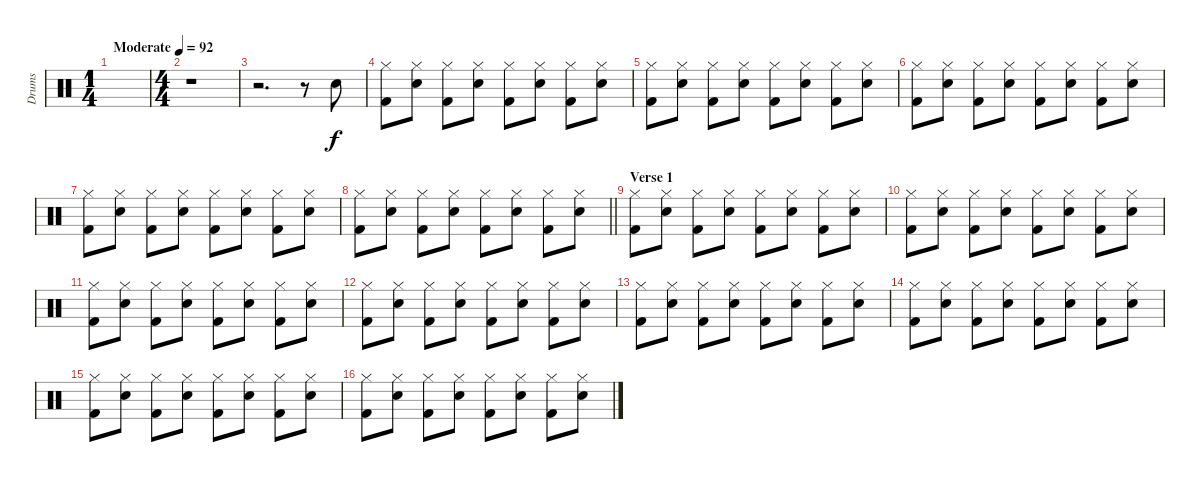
\track ("Drums" "Drums") {instrument percussion}
\staff
\articulation defaults
\ts (1 4)
\tempo (92 "Moderate")
\clef neutral
\ks c
|
\ts (4 4)
r.1 |
r.2{d} r.8 "Electric Snare (hit)".8 |
("Hi-Hat (closed)" "Kick (hit) 2").8 ("Hi-Hat (closed)" "Electric Snare (hit)").8 ("Hi-Hat (closed)" "Kick (hit) 2").8 ("Hi-Hat (closed)" "Electric Snare (hit)").8 ("Hi-Hat (closed)" "Kick (hit) 2").8 ("Hi-Hat (closed)" "Electric Snare (hit)").8 ("Hi-Hat (closed)" "Kick (hit) 2").8 ("Hi-Hat (closed)" "Electric Snare (hit)").8 |
("Hi-Hat (closed)" "Kick (hit) 2").8 ("Hi-Hat (closed)" "Electric Snare (hit)").8 ("Hi-Hat (closed)" "Kick (hit) 2").8 ("Hi-Hat (closed)" "Electric Snare (hit)").8 ("Hi-Hat (closed)" "Kick (hit) 2").8 ("Hi-Hat (closed)" "Electric Snare (hit)").8 ("Hi-Hat (closed)" "Kick (hit) 2").8 ("Hi-Hat (closed)" "Electric Snare (hit)").8 |
("Hi-Hat (closed)" "Kick (hit) 2").8 ("Hi-Hat (closed)" "Electric Snare (hit)").8 ("Hi-Hat (closed)" "Kick (hit) 2").8 ("Hi-Hat (closed)" "Electric Snare (hit)").8 ("Hi-Hat (closed)" "Kick (hit) 2").8 ("Hi-Hat (closed)" "Electric Snare (hit)").8 ("Hi-Hat (closed)" "Kick (hit) 2").8 ("Hi-Hat (closed)" "Electric Snare (hit)").8 |
("Hi-Hat (closed)" "Kick (hit) 2").8 ("Hi-Hat (closed)" "Electric Snare (hit)").8 ("Hi-Hat (closed)" "Kick (hit) 2").8 ("Hi-Hat (closed)" "Electric Snare (hit)").8 ("Hi-Hat (closed)" "Kick (hit) 2").8 ("Hi-Hat (closed)" "Electric Snare (hit)").8 ("Hi-Hat (closed)" "Kick (hit) 2").8 ("Hi-Hat (closed)" "Electric Snare (hit)").8 |
\barLineRight lightlight
("Hi-Hat (closed)" "Kick (hit) 2").8 ("Hi-Hat (closed)" "Electric Snare (hit)").8 ("Hi-Hat (closed)" "Kick (hit) 2").8 ("Hi-Hat (closed)" "Electric Snare (hit)").8 ("Hi-Hat (closed)" "Kick (hit) 2").8 ("Hi-Hat (closed)" "Electric Snare (hit)").8 ("Hi-Hat (closed)" "Kick (hit) 2").8 ("Hi-Hat (closed)" "Electric Snare (hit)").8 |
\section ("" "Verse 1")
("Hi-Hat (closed)" "Kick (hit) 2").8 ("Hi-Hat (closed)" "Electric Snare (hit)").8 ("Hi-Hat (closed)" "Kick (hit) 2").8 ("Hi-Hat (closed)" "Electric Snare (hit)").8 ("Hi-Hat (closed)" "Kick (hit) 2").8 ("Hi-Hat (closed)" "Electric Snare (hit)").8 ("Hi-Hat (closed)" "Kick (hit) 2").8 ("Hi-Hat (closed)" "Electric Snare (hit)").8 |
("Hi-Hat (closed)" "Kick (hit) 2").8 ("Hi-Hat (closed)" "Electric Snare (hit)").8 ("Hi-Hat (closed)" "Kick (hit) 2").8 ("Hi-Hat (closed)" "Electric Snare (hit)").8 ("Hi-Hat (closed)" "Kick (hit) 2").8 ("Hi-Hat (closed)" "Electric Snare (hit)").8 ("Hi-Hat (closed)" "Kick (hit) 2").8 ("Hi-Hat (closed)" "Electric Snare (hit)").8 |
("Hi-Hat (closed)" "Kick (hit) 2").8 ("Hi-Hat (closed)" "Electric Snare (hit)").8 ("Hi-Hat (closed)" "Kick (hit) 2").8 ("Hi-Hat (closed)" "Electric Snare (hit)").8 ("Hi-Hat (closed)" "Kick (hit) 2").8 ("Hi-Hat (closed)" "Electric Snare (hit)").8 ("Hi-Hat (closed)" "Kick (hit) 2").8 ("Hi-Hat (closed)" "Electric Snare (hit)").8 |
("Hi-Hat (closed)" "Kick (hit) 2").8 ("Hi-Hat (closed)" "Electric Snare (hit)").8 ("Hi-Hat (closed)" "Kick (hit) 2").8 ("Hi-Hat (closed)" "Electric Snare (hit)").8 ("Hi-Hat (closed)" "Kick (hit) 2").8 ("Hi-Hat (closed)" "Electric Snare (hit)").8 ("Hi-Hat (closed)" "Kick (hit) 2").8 ("Hi-Hat (closed)" "Electric Snare (hit)").8 |
("Hi-Hat (closed)" "Kick (hit) 2").8 ("Hi-Hat (closed)" "Electric Snare (hit)").8 ("Hi-Hat (closed)" "Kick (hit) 2").8 ("Hi-Hat (closed)" "Electric Snare (hit)").8 ("Hi-Hat (closed)" "Kick (hit) 2").8 ("Hi-Hat (closed)" "Electric Snare (hit)").8 ("Hi-Hat (closed)" "Kick (hit) 2").8 ("Hi-Hat (closed)" "Electric Snare (hit)").8 |
("Hi-Hat (closed)" "Kick (hit) 2").8 ("Hi-Hat (closed)" "Electric Snare (hit)").8 ("Hi-Hat (closed)" "Kick (hit) 2").8 ("Hi-Hat (closed)" "Electric Snare (hit)").8 ("Hi-Hat (closed)" "Kick (hit) 2").8 ("Hi-Hat (closed)" "Electric Snare (hit)").8 ("Hi-Hat (closed)" "Kick (hit) 2").8 ("Hi-Hat (closed)" "Electric Snare (hit)").8 |
("Hi-Hat (closed)" "Kick (hit) 2").8 ("Hi-Hat (closed)" "Electric Snare (hit)").8 ("Hi-Hat (closed)" "Kick (hit) 2").8 ("Hi-Hat (closed)" "Electric Snare (hit)").8 ("Hi-Hat (closed)" "Kick (hit) 2").8 ("Hi-Hat (closed)" "Electric Snare (hit)").8 ("Hi-Hat (closed)" "Kick (hit) 2").8 ("Hi-Hat (closed)" "Electric Snare (hit)").8 |
("Hi-Hat (closed)" "Kick (hit) 2").8 ("Hi-Hat (closed)" "Electric Snare (hit)").8 ("Hi-Hat (closed)" "Kick (hit) 2").8 ("Hi-Hat (closed)" "Electric Snare (hit)").8 ("Hi-Hat (closed)" "Kick (hit) 2").8 ("Hi-Hat (closed)" "Electric Snare (hit)").8 ("Hi-Hat (closed)" "Kick (hit) 2").8 ("Hi-Hat (closed)" "Electric Snare (hit)").8
